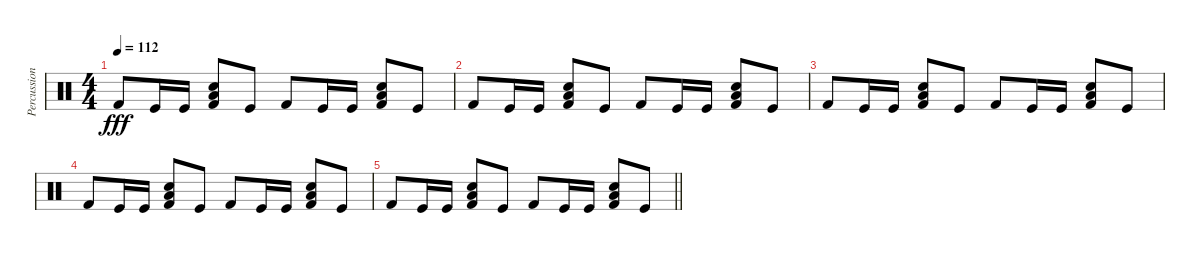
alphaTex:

\track ("Percussion" "Percussion") {instrument percussion}
\staff {score}
\articulation defaults
\ts (4 4)
\tempo 112
\clef neutral
\ks c "Kick (hit) 2".8{dy fff} "Kick (hit)".16 "Kick (hit)".16
("Kick (hit) 2" "Low Floor Tom (hit)" "Hand Clap (hit)").8 "Kick (hit)".8 "Kick (hit) 2".8 "Kick (hit)".16 "Kick (hit)".16 ("Kick (hit) 2" "Low Floor Tom (hit)" "Hand Clap (hit)").8 "Kick (hit)".8 |
"Kick (hit) 2".8 "Kick (hit)".16 "Kick (hit)".16 ("Kick (hit) 2" "Low Floor Tom (hit)" "Hand Clap (hit)").8 "Kick (hit)".8 "Kick (hit) 2".8 "Kick (hit)".16 "Kick (hit)".16 ("Kick (hit) 2" "Low Floor Tom (hit)" "Hand Clap (hit)").8 "Kick (hit)".8 |
"Kick (hit) 2".8 "Kick (hit)".16 "Kick (hit)".16 ("Kick (hit) 2" "Low Floor Tom (hit)" "Hand Clap (hit)").8 "Kick (hit)".8 "Kick (hit) 2".8 "Kick (hit)".16 "Kick (hit)".16 ("Kick (hit) 2" "Low Floor Tom (hit)" "Hand Clap (hit)").8 "Kick (hit)".8 |
"Kick (hit) 2".8 "Kick (hit)".16 "Kick (hit)".16 ("Kick (hit) 2" "Low Floor Tom (hit)" "Hand Clap (hit)").8 "Kick (hit)".8 "Kick (hit) 2".8 "Kick (hit)".16 "Kick (hit)".16 ("Kick (hit) 2" "Low Floor Tom (hit)" "Hand Clap (hit)").8 "Kick (hit)".8 |
\barLineRight lightlight "Kick (hit) 2".8 "Kick (hit)".16 "Kick (hit)".16
("Kick (hit) 2" "Low Floor Tom (hit)" "Hand Clap (hit)").8 "Kick (hit)".8 "Kick (hit) 2".8 "Kick (hit)".16 "Kick (hit)".16 ("Kick (hit) 2" "Low Floor Tom (hit)" "Hand Clap (hit)").8 "Kick (hit)".8
